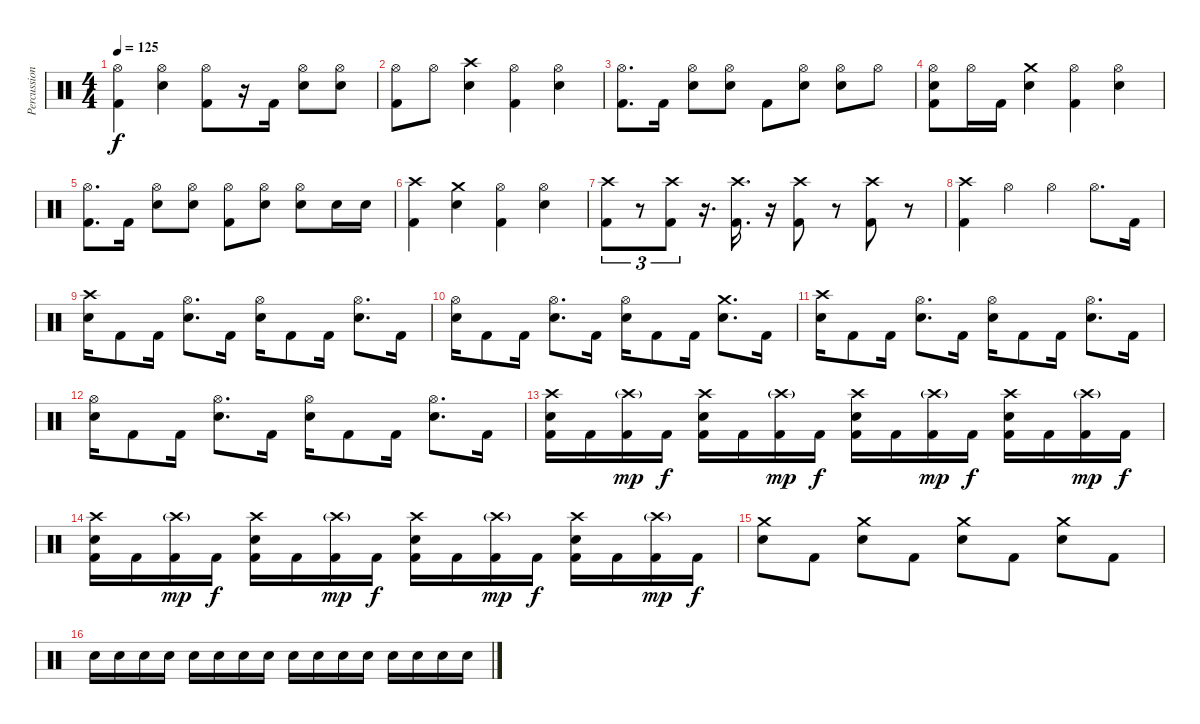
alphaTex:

\track ("Percussion" "Percussion") {instrument percussion}
\staff {score}
\articulation defaults
\ts (4 4)
\tempo 125
\clef neutral
\ks c
("Hi-Hat (open)" "Kick (hit) 2").4{dy f} ("Hi-Hat (open)" "Electric Snare (hit)").4 ("Hi-Hat (open)" "Kick (hit) 2").8 r.16 "Kick (hit) 2".16 ("Hi-Hat (open)" "Electric Snare (hit)").8 ("Hi-Hat (open)" "Electric Snare (hit)").8 |
("Hi-Hat (open)" "Kick (hit) 2").8 "Hi-Hat (open)".8 ("Crash high (hit)" "Electric Snare (hit)").4 ("Hi-Hat (open)" "Kick (hit) 2").4 ("Hi-Hat (open)" "Electric Snare (hit)").4 |
("Hi-Hat (open)" "Kick (hit) 2").8{d} "Kick (hit) 2".16 ("Hi-Hat (open)" "Electric Snare (hit)").8 ("Hi-Hat (open)" "Electric Snare (hit)").8 "Kick (hit) 2".8 ("Hi-Hat (open)" "Electric Snare (hit)").8 ("Hi-Hat (open)" "Electric Snare (hit)").8 "Hi-Hat (open)".8 |
("Hi-Hat (open)" "Electric Snare (hit)" "Kick (hit) 2").8 "Hi-Hat (open)".16 "Kick (hit) 2".16 ("Crash medium (hit)" "Electric Snare (hit)").4 ("Hi-Hat (open)" "Kick (hit) 2").4 ("Hi-Hat (open)" "Electric Snare (hit)").4 |
("Hi-Hat (open)" "Kick (hit) 2").8{d} "Kick (hit) 2".16 ("Hi-Hat (open)" "Electric Snare (hit)").8 ("Hi-Hat (open)" "Electric Snare (hit)").8 ("Hi-Hat (open)" "Kick (hit) 2").8 ("Hi-Hat (open)" "Electric Snare (hit)").8 ("Hi-Hat (open)" "Electric Snare (hit)").8 "Electric Snare (hit)".16 "Electric Snare (hit)".16 |
("Crash high (hit)" "Kick (hit) 2").4 ("Crash medium (hit)" "Electric Snare (hit)").4 ("Hi-Hat (open)" "Kick (hit) 2").4 ("Hi-Hat (open)" "Electric Snare (hit)").4 |
("Crash high (hit)" "Kick (hit) 2").8{tu (3 2) volume 13} r.8{tu (3 2) volume 0} ("Crash high (hit)" "Kick (hit) 2").8{tu (3 2) volume 13} r.16{d volume 0} ("Crash high (hit)" "Kick (hit) 2").16{d volume 13} r.16{volume 0} ("Crash high (hit)" "Kick (hit) 2").8{volume 13} r.8{volume 0} ("Crash high (hit)" "Kick (hit) 2").8{volume 13} r.8{volume 0} |
("Crash high (hit)" "Kick (hit) 2").4{volume 13} "Hi-Hat (open)".4 "Hi-Hat (open)".4 "Hi-Hat (open)".8{d} "Kick (hit) 2".16 |
("Crash high (hit)" "Electric Snare (hit)").16{volume 13} "Kick (hit) 2".8 "Kick (hit) 2".16 ("Hi-Hat (open)" "Electric Snare (hit)").8{d} "Kick (hit) 2".16 ("Hi-Hat (open)" "Electric Snare (hit)").16 "Kick (hit) 2".8 "Kick (hit) 2".16 ("Hi-Hat (open)" "Electric Snare (hit)").8{d} "Kick (hit) 2".16 |
("Hi-Hat (open)" "Electric Snare (hit)").16{volume 13} "Kick (hit) 2".8 "Kick (hit) 2".16 ("Hi-Hat (open)" "Electric Snare (hit)").8{d} "Kick (hit) 2".16 ("Hi-Hat (open)" "Electric Snare (hit)").16 "Kick (hit) 2".8 "Kick (hit) 2".16 ("Crash medium (hit)" "Electric Snare (hit)").8{d} "Kick (hit) 2".16 |
("Crash high (hit)" "Electric Snare (hit)").16{volume 13} "Kick (hit) 2".8 "Kick (hit) 2".16 ("Hi-Hat (open)" "Electric Snare (hit)").8{d} "Kick (hit) 2".16 ("Hi-Hat (open)" "Electric Snare (hit)").16 "Kick (hit) 2".8 "Kick (hit) 2".16 ("Hi-Hat (open)" "Electric Snare (hit)").8{d} "Kick (hit) 2".16 |
("Hi-Hat (open)" "Electric Snare (hit)").16{volume 13} "Kick (hit) 2".8 "Kick (hit) 2".16 ("Hi-Hat (open)" "Electric Snare (hit)").8{d} "Kick (hit) 2".16 ("Hi-Hat (open)" "Electric Snare (hit)").16 "Kick (hit) 2".8 "Kick (hit) 2".16 ("Hi-Hat (open)" "Electric Snare (hit)").8{d} "Kick (hit) 2".16 |
("Crash high (hit)" "Electric Snare (hit)" "Kick (hit) 2").16 "Kick (hit) 2".16 ("Crash high (hit)"{g} "Kick (hit) 2").16{dy mp} "Kick (hit) 2".16{dy f} ("Crash high (hit)" "Electric Snare (hit)" "Kick (hit) 2").16 "Kick (hit) 2".16 ("Crash high (hit)"{g} "Kick (hit) 2").16{dy mp} "Kick (hit) 2".16{dy f} ("Crash high (hit)" "Electric Snare (hit)" "Kick (hit) 2").16 "Kick (hit) 2".16 ("Crash high (hit)"{g} "Kick (hit) 2").16{dy mp} "Kick (hit) 2".16{dy f} ("Crash high (hit)" "Electric Snare (hit)" "Kick (hit) 2").16 "Kick (hit) 2".16 ("Crash high (hit)"{g} "Kick (hit) 2").16{dy mp} "Kick (hit) 2".16{dy f} |
("Crash high (hit)" "Electric Snare (hit)" "Kick (hit) 2").16 "Kick (hit) 2".16 ("Crash high (hit)"{g} "Kick (hit) 2").16{dy mp} "Kick (hit) 2".16{dy f} ("Crash high (hit)" "Electric Snare (hit)" "Kick (hit) 2").16 "Kick (hit) 2".16 ("Crash high (hit)"{g} "Kick (hit) 2").16{dy mp} "Kick (hit) 2".16{dy f} ("Crash high (hit)" "Electric Snare (hit)" "Kick (hit) 2").16 "Kick (hit) 2".16 ("Crash high (hit)"{g} "Kick (hit) 2").16{dy mp} "Kick (hit) 2".16{dy f} ("Crash high (hit)" "Electric Snare (hit)" "Kick (hit) 2").16 "Kick (hit) 2".16 ("Crash high (hit)"{g} "Kick (hit) 2").16{dy mp} "Kick (hit) 2".16{dy f} |
("Crash medium (hit)" "Electric Snare (hit)").8 "Kick (hit) 2".8 ("Crash medium (hit)" "Electric Snare (hit)").8 "Kick (hit) 2".8 ("Crash medium (hit)" "Electric Snare (hit)").8 "Kick (hit) 2".8 ("Crash medium (hit)" "Electric Snare (hit)").8 "Kick (hit) 2".8 |
"Electric Snare (hit)".16{volume 9} "Electric Snare (hit)".16{volume 13} "Electric Snare (hit)".16 "Electric Snare (hit)".16 "Electric Snare (hit)".16 "Electric Snare (hit)".16 "Electric Snare (hit)".16 "Electric Snare (hit)".16 "Electric Snare (hit)".16 "Electric Snare (hit)".16 "Electric Snare (hit)".16 "Electric Snare (hit)".16 "Electric Snare (hit)".16 "Electric Snare (hit)".16 "Electric Snare (hit)".16 "Electric Snare (hit)".16
